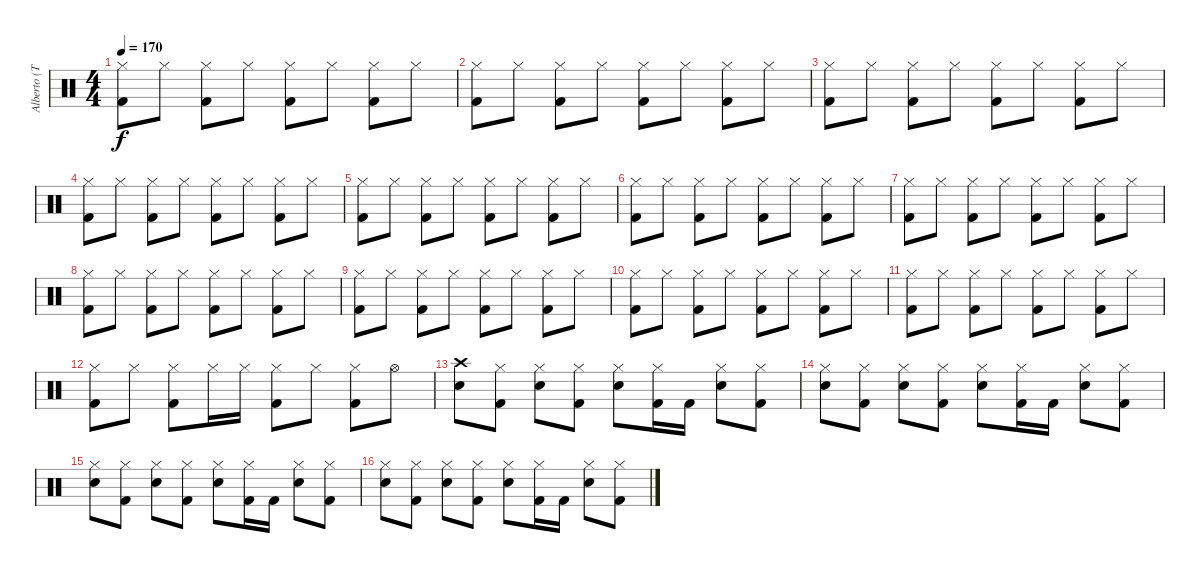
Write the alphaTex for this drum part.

\track ("Alberto (Toshi)" "Alberto (T") {instrument percussion}
\staff {score}
\articulation defaults
\ts (4 4)
\tempo 170
\clef neutral
\ks c
("Hi-Hat (closed)" "Kick (hit) 2").8{dy f} "Hi-Hat (closed)".8 ("Hi-Hat (closed)" "Kick (hit) 2").8 "Hi-Hat (closed)".8 ("Hi-Hat (closed)" "Kick (hit) 2").8 "Hi-Hat (closed)".8 ("Hi-Hat (closed)" "Kick (hit) 2").8 "Hi-Hat (closed)".8 |
("Hi-Hat (closed)" "Kick (hit) 2").8 "Hi-Hat (closed)".8 ("Hi-Hat (closed)" "Kick (hit) 2").8 "Hi-Hat (closed)".8 ("Hi-Hat (closed)" "Kick (hit) 2").8 "Hi-Hat (closed)".8 ("Hi-Hat (closed)" "Kick (hit) 2").8 "Hi-Hat (closed)".8 |
("Hi-Hat (closed)" "Kick (hit) 2").8 "Hi-Hat (closed)".8 ("Hi-Hat (closed)" "Kick (hit) 2").8 "Hi-Hat (closed)".8 ("Hi-Hat (closed)" "Kick (hit) 2").8 "Hi-Hat (closed)".8 ("Hi-Hat (closed)" "Kick (hit) 2").8 "Hi-Hat (closed)".8 |
("Hi-Hat (closed)" "Kick (hit) 2").8 "Hi-Hat (closed)".8 ("Hi-Hat (closed)" "Kick (hit) 2").8 "Hi-Hat (closed)".8 ("Hi-Hat (closed)" "Kick (hit) 2").8 "Hi-Hat (closed)".8 ("Hi-Hat (closed)" "Kick (hit) 2").8 "Hi-Hat (closed)".8 |
("Hi-Hat (closed)" "Kick (hit) 2").8 "Hi-Hat (closed)".8 ("Hi-Hat (closed)" "Kick (hit) 2").8 "Hi-Hat (closed)".8 ("Hi-Hat (closed)" "Kick (hit) 2").8 "Hi-Hat (closed)".8 ("Hi-Hat (closed)" "Kick (hit) 2").8 "Hi-Hat (closed)".8 |
("Hi-Hat (closed)" "Kick (hit) 2").8 "Hi-Hat (closed)".8 ("Hi-Hat (closed)" "Kick (hit) 2").8 "Hi-Hat (closed)".8 ("Hi-Hat (closed)" "Kick (hit) 2").8 "Hi-Hat (closed)".8 ("Hi-Hat (closed)" "Kick (hit) 2").8 "Hi-Hat (closed)".8 |
("Hi-Hat (closed)" "Kick (hit) 2").8 "Hi-Hat (closed)".8 ("Hi-Hat (closed)" "Kick (hit) 2").8 "Hi-Hat (closed)".8 ("Hi-Hat (closed)" "Kick (hit) 2").8 "Hi-Hat (closed)".8 ("Hi-Hat (closed)" "Kick (hit) 2").8 "Hi-Hat (closed)".8 |
("Hi-Hat (closed)" "Kick (hit) 2").8 "Hi-Hat (closed)".8 ("Hi-Hat (closed)" "Kick (hit) 2").8 "Hi-Hat (closed)".8 ("Hi-Hat (closed)" "Kick (hit) 2").8 "Hi-Hat (closed)".8 ("Hi-Hat (closed)" "Kick (hit) 2").8 "Hi-Hat (closed)".8 |
("Hi-Hat (closed)" "Kick (hit) 2").8 "Hi-Hat (closed)".8 ("Hi-Hat (closed)" "Kick (hit) 2").8 "Hi-Hat (closed)".8 ("Hi-Hat (closed)" "Kick (hit) 2").8 "Hi-Hat (closed)".8 ("Hi-Hat (closed)" "Kick (hit) 2").8 "Hi-Hat (closed)".8 |
("Hi-Hat (closed)" "Kick (hit) 2").8 "Hi-Hat (closed)".8 ("Hi-Hat (closed)" "Kick (hit) 2").8 "Hi-Hat (closed)".8 ("Hi-Hat (closed)" "Kick (hit) 2").8 "Hi-Hat (closed)".8 ("Hi-Hat (closed)" "Kick (hit) 2").8 "Hi-Hat (closed)".8 |
("Hi-Hat (closed)" "Kick (hit) 2").8 "Hi-Hat (closed)".8 ("Hi-Hat (closed)" "Kick (hit) 2").8 "Hi-Hat (closed)".8 ("Hi-Hat (closed)" "Kick (hit) 2").8 "Hi-Hat (closed)".8 ("Hi-Hat (closed)" "Kick (hit) 2").8 "Hi-Hat (closed)".8 |
("Hi-Hat (closed)" "Kick (hit) 2").8 "Hi-Hat (closed)".8 ("Hi-Hat (closed)" "Kick (hit) 2").8 "Hi-Hat (closed)".16 "Hi-Hat (closed)".16 ("Hi-Hat (closed)" "Kick (hit) 2").8 "Hi-Hat (closed)".8 ("Hi-Hat (closed)" "Kick (hit) 2").8 "Hi-Hat (open)".8 |
("Crash high (hit)" "Snare (hit) 2").8 ("Hi-Hat (closed)" "Kick (hit) 2").8 ("Hi-Hat (closed)" "Snare (hit) 2").8 ("Hi-Hat (closed)" "Kick (hit) 2").8 ("Hi-Hat (closed)" "Snare (hit) 2").8 ("Hi-Hat (closed)" "Kick (hit) 2").16 "Kick (hit) 2".16 ("Hi-Hat (closed)" "Snare (hit) 2").8 ("Hi-Hat (closed)" "Kick (hit) 2").8 |
("Hi-Hat (closed)" "Snare (hit) 2").8 ("Hi-Hat (closed)" "Kick (hit) 2").8 ("Hi-Hat (closed)" "Snare (hit) 2").8 ("Hi-Hat (closed)" "Kick (hit) 2").8 ("Hi-Hat (closed)" "Snare (hit) 2").8 ("Hi-Hat (closed)" "Kick (hit) 2").16 "Kick (hit) 2".16 ("Hi-Hat (closed)" "Snare (hit) 2").8 ("Hi-Hat (closed)" "Kick (hit) 2").8 |
("Hi-Hat (closed)" "Snare (hit) 2").8 ("Hi-Hat (closed)" "Kick (hit) 2").8 ("Hi-Hat (closed)" "Snare (hit) 2").8 ("Hi-Hat (closed)" "Kick (hit) 2").8 ("Hi-Hat (closed)" "Snare (hit) 2").8 ("Hi-Hat (closed)" "Kick (hit) 2").16 "Kick (hit) 2".16 ("Hi-Hat (closed)" "Snare (hit) 2").8 ("Hi-Hat (closed)" "Kick (hit) 2").8 |
("Hi-Hat (closed)" "Snare (hit) 2").8 ("Hi-Hat (closed)" "Kick (hit) 2").8 ("Hi-Hat (closed)" "Snare (hit) 2").8 ("Hi-Hat (closed)" "Kick (hit) 2").8 ("Hi-Hat (closed)" "Snare (hit) 2").8 ("Hi-Hat (closed)" "Kick (hit) 2").16 "Kick (hit) 2".16 ("Hi-Hat (closed)" "Snare (hit) 2").8 ("Hi-Hat (closed)" "Kick (hit) 2").8
